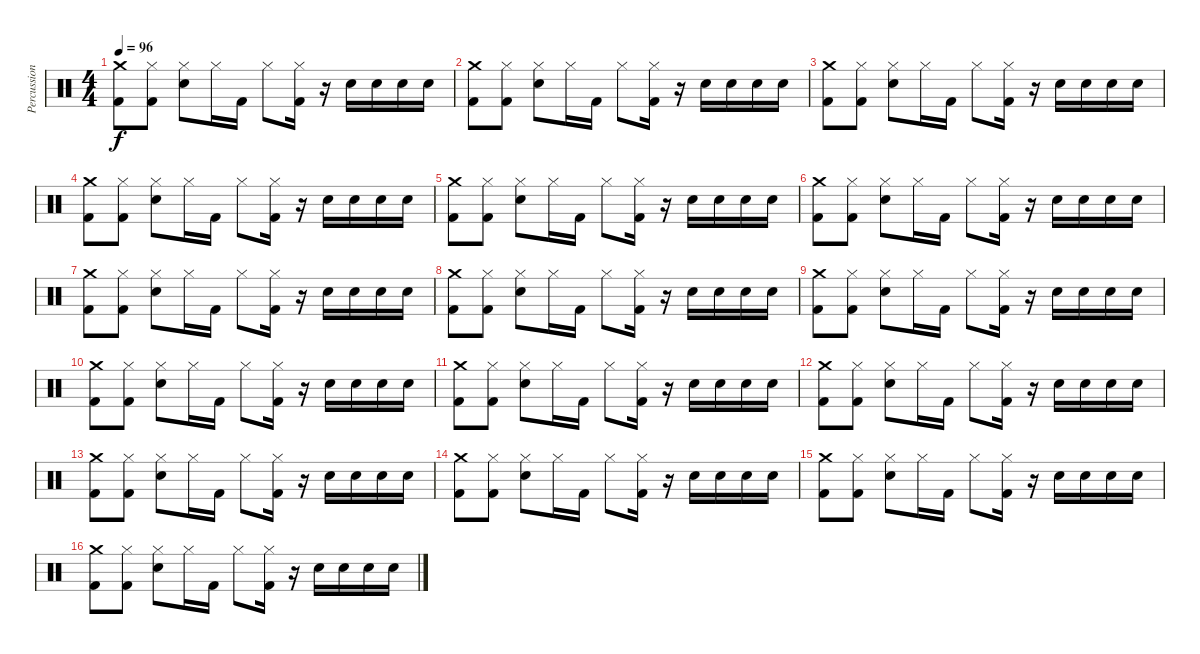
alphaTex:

\track ("Percussion" "Percussion") {instrument percussion}
\staff {score}
\articulation defaults
\ts (4 4)
\tempo 96
\clef neutral
\ks c
("Crash medium (hit)" "Kick (hit) 2").8{dy f} ("Hi-Hat (closed)" "Kick (hit) 2").8 ("Hi-Hat (closed)" "Snare (hit) 2").8 "Hi-Hat (closed)".16 "Kick (hit) 2".16 "Hi-Hat (closed)".8 ("Hi-Hat (closed)" "Kick (hit) 2").16 r.16 "Snare (hit) 2".16 "Snare (hit) 2".16 "Snare (hit) 2".16 "Snare (hit) 2".16 |
("Crash medium (hit)" "Kick (hit) 2").8 ("Hi-Hat (closed)" "Kick (hit) 2").8 ("Hi-Hat (closed)" "Snare (hit) 2").8 "Hi-Hat (closed)".16 "Kick (hit) 2".16 "Hi-Hat (closed)".8 ("Hi-Hat (closed)" "Kick (hit) 2").16 r.16 "Snare (hit) 2".16 "Snare (hit) 2".16 "Snare (hit) 2".16 "Snare (hit) 2".16 |
("Crash medium (hit)" "Kick (hit) 2").8 ("Hi-Hat (closed)" "Kick (hit) 2").8 ("Hi-Hat (closed)" "Snare (hit) 2").8 "Hi-Hat (closed)".16 "Kick (hit) 2".16 "Hi-Hat (closed)".8 ("Hi-Hat (closed)" "Kick (hit) 2").16 r.16 "Snare (hit) 2".16 "Snare (hit) 2".16 "Snare (hit) 2".16 "Snare (hit) 2".16 |
("Crash medium (hit)" "Kick (hit) 2").8 ("Hi-Hat (closed)" "Kick (hit) 2").8 ("Hi-Hat (closed)" "Snare (hit) 2").8 "Hi-Hat (closed)".16 "Kick (hit) 2".16 "Hi-Hat (closed)".8 ("Hi-Hat (closed)" "Kick (hit) 2").16 r.16 "Snare (hit) 2".16 "Snare (hit) 2".16 "Snare (hit) 2".16 "Snare (hit) 2".16 |
("Crash medium (hit)" "Kick (hit) 2").8 ("Hi-Hat (closed)" "Kick (hit) 2").8 ("Hi-Hat (closed)" "Snare (hit) 2").8 "Hi-Hat (closed)".16 "Kick (hit) 2".16 "Hi-Hat (closed)".8 ("Hi-Hat (closed)" "Kick (hit) 2").16 r.16 "Snare (hit) 2".16 "Snare (hit) 2".16 "Snare (hit) 2".16 "Snare (hit) 2".16 |
("Crash medium (hit)" "Kick (hit) 2").8 ("Hi-Hat (closed)" "Kick (hit) 2").8 ("Hi-Hat (closed)" "Snare (hit) 2").8 "Hi-Hat (closed)".16 "Kick (hit) 2".16 "Hi-Hat (closed)".8 ("Hi-Hat (closed)" "Kick (hit) 2").16 r.16 "Snare (hit) 2".16 "Snare (hit) 2".16 "Snare (hit) 2".16 "Snare (hit) 2".16 |
("Crash medium (hit)" "Kick (hit) 2").8 ("Hi-Hat (closed)" "Kick (hit) 2").8 ("Hi-Hat (closed)" "Snare (hit) 2").8 "Hi-Hat (closed)".16 "Kick (hit) 2".16 "Hi-Hat (closed)".8 ("Hi-Hat (closed)" "Kick (hit) 2").16 r.16 "Snare (hit) 2".16 "Snare (hit) 2".16 "Snare (hit) 2".16 "Snare (hit) 2".16 |
("Crash medium (hit)" "Kick (hit) 2").8 ("Hi-Hat (closed)" "Kick (hit) 2").8 ("Hi-Hat (closed)" "Snare (hit) 2").8 "Hi-Hat (closed)".16 "Kick (hit) 2".16 "Hi-Hat (closed)".8 ("Hi-Hat (closed)" "Kick (hit) 2").16 r.16 "Snare (hit) 2".16 "Snare (hit) 2".16 "Snare (hit) 2".16 "Snare (hit) 2".16 |
("Crash medium (hit)" "Kick (hit) 2").8 ("Hi-Hat (closed)" "Kick (hit) 2").8 ("Hi-Hat (closed)" "Snare (hit) 2").8 "Hi-Hat (closed)".16 "Kick (hit) 2".16 "Hi-Hat (closed)".8 ("Hi-Hat (closed)" "Kick (hit) 2").16 r.16 "Snare (hit) 2".16 "Snare (hit) 2".16 "Snare (hit) 2".16 "Snare (hit) 2".16 |
("Crash medium (hit)" "Kick (hit) 2").8 ("Hi-Hat (closed)" "Kick (hit) 2").8 ("Hi-Hat (closed)" "Snare (hit) 2").8 "Hi-Hat (closed)".16 "Kick (hit) 2".16 "Hi-Hat (closed)".8 ("Hi-Hat (closed)" "Kick (hit) 2").16 r.16 "Snare (hit) 2".16 "Snare (hit) 2".16 "Snare (hit) 2".16 "Snare (hit) 2".16 |
("Crash medium (hit)" "Kick (hit) 2").8 ("Hi-Hat (closed)" "Kick (hit) 2").8 ("Hi-Hat (closed)" "Snare (hit) 2").8 "Hi-Hat (closed)".16 "Kick (hit) 2".16 "Hi-Hat (closed)".8 ("Hi-Hat (closed)" "Kick (hit) 2").16 r.16 "Snare (hit) 2".16 "Snare (hit) 2".16 "Snare (hit) 2".16 "Snare (hit) 2".16 |
("Crash medium (hit)" "Kick (hit) 2").8 ("Hi-Hat (closed)" "Kick (hit) 2").8 ("Hi-Hat (closed)" "Snare (hit) 2").8 "Hi-Hat (closed)".16 "Kick (hit) 2".16 "Hi-Hat (closed)".8 ("Hi-Hat (closed)" "Kick (hit) 2").16 r.16 "Snare (hit) 2".16 "Snare (hit) 2".16 "Snare (hit) 2".16 "Snare (hit) 2".16 |
("Crash medium (hit)" "Kick (hit) 2").8 ("Hi-Hat (closed)" "Kick (hit) 2").8 ("Hi-Hat (closed)" "Snare (hit) 2").8 "Hi-Hat (closed)".16 "Kick (hit) 2".16 "Hi-Hat (closed)".8 ("Hi-Hat (closed)" "Kick (hit) 2").16 r.16 "Snare (hit) 2".16 "Snare (hit) 2".16 "Snare (hit) 2".16 "Snare (hit) 2".16 |
("Crash medium (hit)" "Kick (hit) 2").8 ("Hi-Hat (closed)" "Kick (hit) 2").8 ("Hi-Hat (closed)" "Snare (hit) 2").8 "Hi-Hat (closed)".16 "Kick (hit) 2".16 "Hi-Hat (closed)".8 ("Hi-Hat (closed)" "Kick (hit) 2").16 r.16 "Snare (hit) 2".16 "Snare (hit) 2".16 "Snare (hit) 2".16 "Snare (hit) 2".16 |
("Crash medium (hit)" "Kick (hit) 2").8 ("Hi-Hat (closed)" "Kick (hit) 2").8 ("Hi-Hat (closed)" "Snare (hit) 2").8 "Hi-Hat (closed)".16 "Kick (hit) 2".16 "Hi-Hat (closed)".8 ("Hi-Hat (closed)" "Kick (hit) 2").16 r.16 "Snare (hit) 2".16 "Snare (hit) 2".16 "Snare (hit) 2".16 "Snare (hit) 2".16 |
("Crash medium (hit)" "Kick (hit) 2").8 ("Hi-Hat (closed)" "Kick (hit) 2").8 ("Hi-Hat (closed)" "Snare (hit) 2").8 "Hi-Hat (closed)".16 "Kick (hit) 2".16 "Hi-Hat (closed)".8 ("Hi-Hat (closed)" "Kick (hit) 2").16 r.16 "Snare (hit) 2".16 "Snare (hit) 2".16 "Snare (hit) 2".16 "Snare (hit) 2".16
